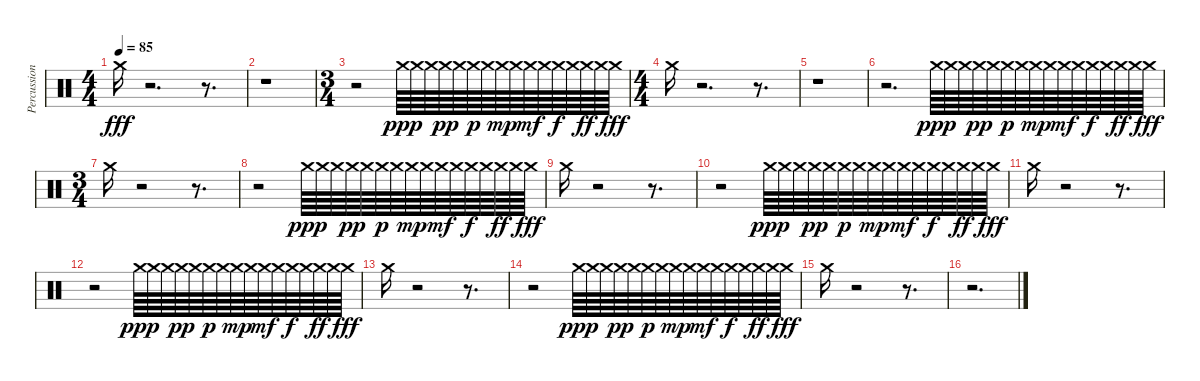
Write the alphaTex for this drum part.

\track ("Percussion" "Percussion") {instrument percussion}
\staff {score}
\articulation defaults
\ts (4 4)
\tempo 85
\clef neutral
\ks c "Crash medium (hit)".16{dy fff}
r.2{d} r.8{d} |
r.1 |
\ts (3 4)
r.2 "Crash medium (hit)".64{dy ppp} "Crash medium (hit)".64 "Crash medium (hit)".64 "Crash medium (hit)".64{dy pp} "Crash medium (hit)".64 "Crash medium (hit)".64{dy p} "Crash medium (hit)".64 "Crash medium (hit)".64{dy mp} "Crash medium (hit)".64 "Crash medium (hit)".64{dy mf} "Crash medium (hit)".64 "Crash medium (hit)".64{dy f} "Crash medium (hit)".64 "Crash medium (hit)".64{dy ff} "Crash medium (hit)".64 "Crash medium (hit)".64{dy fff} |
\ts (4 4)
"Crash medium (hit)".16 r.2{d} r.8{d} |
r.1 |
r.2{d} "Crash medium (hit)".64{dy ppp} "Crash medium (hit)".64 "Crash medium (hit)".64 "Crash medium (hit)".64{dy pp} "Crash medium (hit)".64 "Crash medium (hit)".64{dy p} "Crash medium (hit)".64 "Crash medium (hit)".64{dy mp} "Crash medium (hit)".64 "Crash medium (hit)".64{dy mf} "Crash medium (hit)".64 "Crash medium (hit)".64{dy f} "Crash medium (hit)".64 "Crash medium (hit)".64{dy ff} "Crash medium (hit)".64 "Crash medium (hit)".64{dy fff} |
\ts (3 4)
"Crash medium (hit)".16 r.2 r.8{d} |
r.2 "Crash medium (hit)".64{dy ppp} "Crash medium (hit)".64 "Crash medium (hit)".64 "Crash medium (hit)".64{dy pp} "Crash medium (hit)".64 "Crash medium (hit)".64{dy p} "Crash medium (hit)".64 "Crash medium (hit)".64{dy mp} "Crash medium (hit)".64 "Crash medium (hit)".64{dy mf} "Crash medium (hit)".64 "Crash medium (hit)".64{dy f} "Crash medium (hit)".64 "Crash medium (hit)".64{dy ff} "Crash medium (hit)".64 "Crash medium (hit)".64{dy fff} |
"Crash medium (hit)".16 r.2 r.8{d} |
r.2 "Crash medium (hit)".64{dy ppp} "Crash medium (hit)".64 "Crash medium (hit)".64 "Crash medium (hit)".64{dy pp} "Crash medium (hit)".64 "Crash medium (hit)".64{dy p} "Crash medium (hit)".64 "Crash medium (hit)".64{dy mp} "Crash medium (hit)".64 "Crash medium (hit)".64{dy mf} "Crash medium (hit)".64 "Crash medium (hit)".64{dy f} "Crash medium (hit)".64 "Crash medium (hit)".64{dy ff} "Crash medium (hit)".64 "Crash medium (hit)".64{dy fff} |
"Crash medium (hit)".16 r.2 r.8{d} |
r.2 "Crash medium (hit)".64{dy ppp} "Crash medium (hit)".64 "Crash medium (hit)".64 "Crash medium (hit)".64{dy pp} "Crash medium (hit)".64 "Crash medium (hit)".64{dy p} "Crash medium (hit)".64 "Crash medium (hit)".64{dy mp} "Crash medium (hit)".64 "Crash medium (hit)".64{dy mf} "Crash medium (hit)".64 "Crash medium (hit)".64{dy f} "Crash medium (hit)".64 "Crash medium (hit)".64{dy ff} "Crash medium (hit)".64 "Crash medium (hit)".64{dy fff} |
"Crash medium (hit)".16 r.2 r.8{d} |
r.2 "Crash medium (hit)".64{dy ppp} "Crash medium (hit)".64 "Crash medium (hit)".64 "Crash medium (hit)".64{dy pp} "Crash medium (hit)".64 "Crash medium (hit)".64{dy p} "Crash medium (hit)".64 "Crash medium (hit)".64{dy mp} "Crash medium (hit)".64 "Crash medium (hit)".64{dy mf} "Crash medium (hit)".64 "Crash medium (hit)".64{dy f} "Crash medium (hit)".64 "Crash medium (hit)".64{dy ff} "Crash medium (hit)".64 "Crash medium (hit)".64{dy fff} |
"Crash medium (hit)".16 r.2 r.8{d} |
r.2{d}
